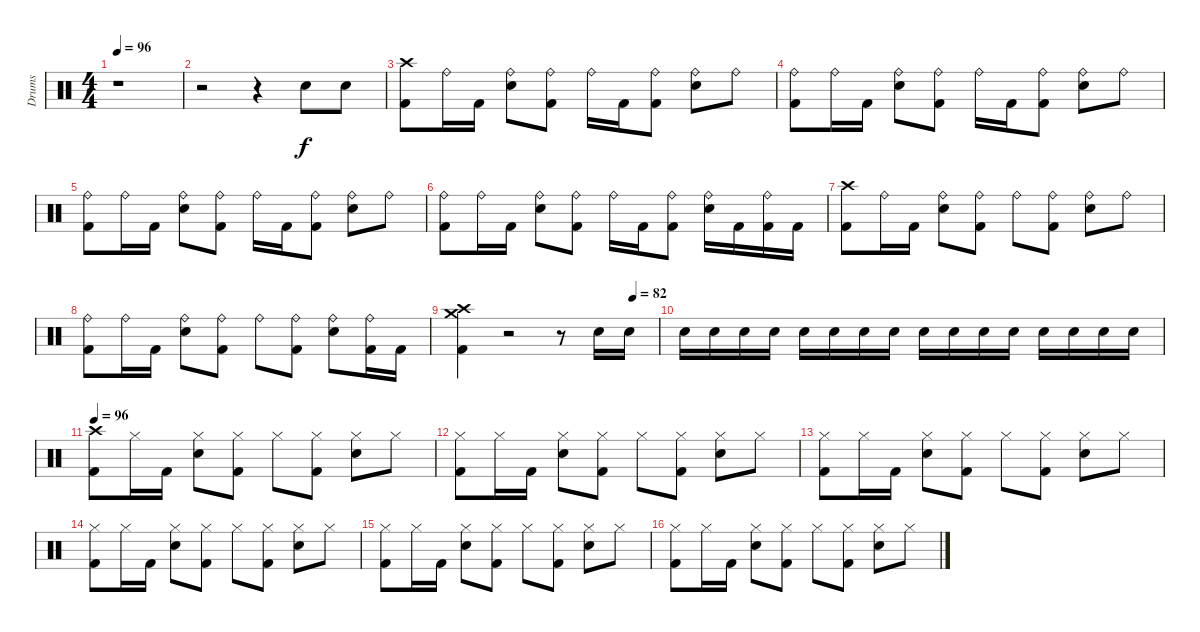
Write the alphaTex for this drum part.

\track ("Drums" "Drums") {instrument percussion}
\staff {score}
\articulation defaults
\ts (4 4)
\tempo 96
\tempo 82
\tempo 96
\clef neutral
\ks c
r.1{dy f} |
r.2 r.4 "Snare (hit) 2".8 "Snare (hit) 2".8 |
("Kick (hit) 2" "Crash high (hit)").8 "Ride (bell)".16 "Kick (hit) 2".16 ("Snare (hit) 2" "Ride (bell)").8 ("Kick (hit) 2" "Ride (bell)").8 "Ride (bell)".16 "Kick (hit) 2".16 ("Kick (hit) 2" "Ride (bell)").8 ("Snare (hit) 2" "Ride (bell)").8 "Ride (bell)".8 |
("Kick (hit) 2" "Ride (bell)").8 "Ride (bell)".16 "Kick (hit) 2".16 ("Snare (hit) 2" "Ride (bell)").8 ("Kick (hit) 2" "Ride (bell)").8 "Ride (bell)".16 "Kick (hit) 2".16 ("Kick (hit) 2" "Ride (bell)").8 ("Snare (hit) 2" "Ride (bell)").8 "Ride (bell)".8 |
("Kick (hit) 2" "Ride (bell)").8 "Ride (bell)".16 "Kick (hit) 2".16 ("Snare (hit) 2" "Ride (bell)").8 ("Kick (hit) 2" "Ride (bell)").8 "Ride (bell)".16 "Kick (hit) 2".16 ("Kick (hit) 2" "Ride (bell)").8 ("Snare (hit) 2" "Ride (bell)").8 "Ride (bell)".8 |
("Kick (hit) 2" "Ride (bell)").8 "Ride (bell)".16 "Kick (hit) 2".16 ("Snare (hit) 2" "Ride (bell)").8 ("Kick (hit) 2" "Ride (bell)").8 "Ride (bell)".16 "Kick (hit) 2".16 ("Kick (hit) 2" "Ride (bell)").8 ("Snare (hit) 2" "Ride (bell)").16 "Kick (hit) 2".16 ("Kick (hit) 2" "Ride (bell)").16 "Kick (hit) 2".16 |
("Kick (hit) 2" "Crash high (hit)").8 "Ride (bell)".16 "Kick (hit) 2".16 ("Snare (hit) 2" "Ride (bell)").8 ("Kick (hit) 2" "Ride (bell)").8 "Ride (bell)".8 ("Kick (hit) 2" "Ride (bell)").8 ("Snare (hit) 2" "Ride (bell)").8 "Ride (bell)".8 |
("Kick (hit) 2" "Ride (bell)").8 "Ride (bell)".16 "Kick (hit) 2".16 ("Snare (hit) 2" "Ride (bell)").8 ("Kick (hit) 2" "Ride (bell)").8 "Ride (bell)".8 ("Kick (hit) 2" "Ride (bell)").8 ("Snare (hit) 2" "Ride (bell)").8 ("Kick (hit) 2" "Ride (bell)").16 "Kick (hit) 2".16 |
\tempo (82 0.875)
("Kick (hit) 2" "Crash high (hit)" "Crash medium (hit)").4 r.2{volume 0} r.8 "Snare (hit) 2".16{volume 16} "Snare (hit) 2".16 |
"Snare (hit) 2".16 "Snare (hit) 2".16 "Snare (hit) 2".16 "Snare (hit) 2".16 "Snare (hit) 2".16 "Snare (hit) 2".16 "Snare (hit) 2".16 "Snare (hit) 2".16 "Snare (hit) 2".16 "Snare (hit) 2".16 "Snare (hit) 2".16 "Snare (hit) 2".16 "Snare (hit) 2".16 "Snare (hit) 2".16 "Snare (hit) 2".16 "Snare (hit) 2".16 |
\tempo 96
("Kick (hit) 2" "Crash high (hit)").8 "Hi-Hat (closed)".16 "Kick (hit) 2".16 ("Snare (hit) 2" "Hi-Hat (closed)").8 ("Kick (hit) 2" "Hi-Hat (closed)").8 "Hi-Hat (closed)".8 ("Kick (hit) 2" "Hi-Hat (closed)").8 ("Snare (hit) 2" "Hi-Hat (closed)").8 "Hi-Hat (closed)".8 |
("Kick (hit) 2" "Hi-Hat (closed)").8 "Hi-Hat (closed)".16 "Kick (hit) 2".16 ("Snare (hit) 2" "Hi-Hat (closed)").8 ("Kick (hit) 2" "Hi-Hat (closed)").8 "Hi-Hat (closed)".8 ("Kick (hit) 2" "Hi-Hat (closed)").8 ("Snare (hit) 2" "Hi-Hat (closed)").8 "Hi-Hat (closed)".8 |
("Kick (hit) 2" "Hi-Hat (closed)").8 "Hi-Hat (closed)".16 "Kick (hit) 2".16 ("Snare (hit) 2" "Hi-Hat (closed)").8 ("Kick (hit) 2" "Hi-Hat (closed)").8 "Hi-Hat (closed)".8 ("Kick (hit) 2" "Hi-Hat (closed)").8 ("Snare (hit) 2" "Hi-Hat (closed)").8 "Hi-Hat (closed)".8 |
("Kick (hit) 2" "Hi-Hat (closed)").8 "Hi-Hat (closed)".16 "Kick (hit) 2".16 ("Snare (hit) 2" "Hi-Hat (closed)").8 ("Kick (hit) 2" "Hi-Hat (closed)").8 "Hi-Hat (closed)".8 ("Kick (hit) 2" "Hi-Hat (closed)").8 ("Snare (hit) 2" "Hi-Hat (closed)").8 "Hi-Hat (closed)".8 |
("Kick (hit) 2" "Hi-Hat (closed)").8 "Hi-Hat (closed)".16 "Kick (hit) 2".16 ("Snare (hit) 2" "Hi-Hat (closed)").8 ("Kick (hit) 2" "Hi-Hat (closed)").8 "Hi-Hat (closed)".8 ("Kick (hit) 2" "Hi-Hat (closed)").8 ("Snare (hit) 2" "Hi-Hat (closed)").8 "Hi-Hat (closed)".8 |
("Kick (hit) 2" "Hi-Hat (closed)").8 "Hi-Hat (closed)".16 "Kick (hit) 2".16 ("Snare (hit) 2" "Hi-Hat (closed)").8 ("Kick (hit) 2" "Hi-Hat (closed)").8 "Hi-Hat (closed)".8 ("Kick (hit) 2" "Hi-Hat (closed)").8 ("Snare (hit) 2" "Hi-Hat (closed)").8 "Hi-Hat (closed)".8
